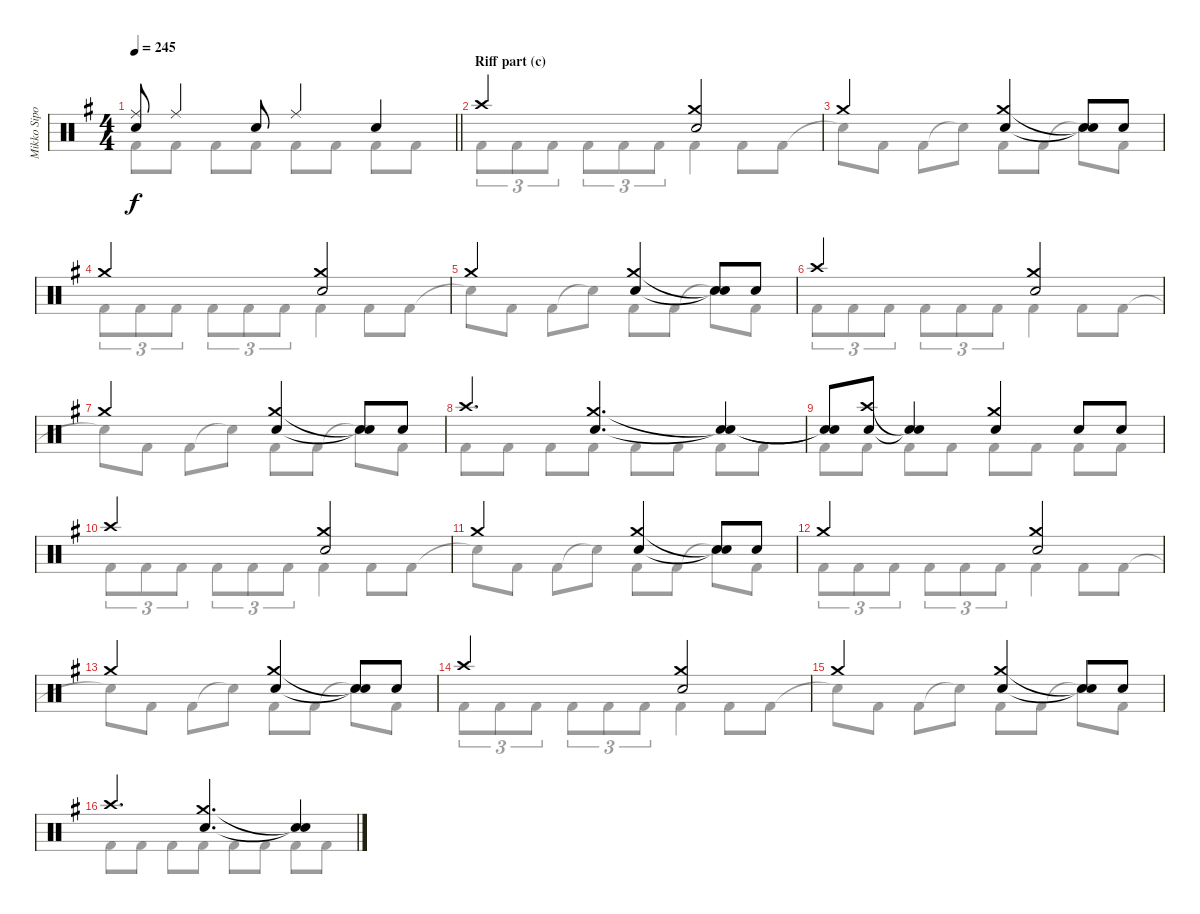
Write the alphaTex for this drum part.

\track ("Mikko Sipola (drums)" "Mikko Sipo") {instrument percussion}
\staff {score}
\articulation defaults
\voice
\ts (4 4)
\tempo 245
\clef neutral
\barLineRight lightlight
\ks eminor
("Ride (middle)" "Electric Snare (hit)").8{dy f} "Ride (middle)".4 "Electric Snare (hit)".8 "Ride (middle)".4 "Electric Snare (hit)".4 |
\section ("" "Riff part (c)")
"Crash high (hit)".2 ("Crash medium (hit)" "Snare (hit) 2").2 |
"Crash medium (hit)".2 ("Crash medium (hit)" "Snare (hit) 2").4 ("Snare (hit)"{t} "Snare (hit)"{t}).8 "Snare (hit) 2".8 |
"Crash medium (hit)".2 ("Crash medium (hit)" "Snare (hit) 2").2 |
"Crash medium (hit)".2 ("Crash medium (hit)" "Snare (hit) 2").4 ("Snare (hit)"{t} "Snare (hit)"{t}).8 "Snare (hit) 2".8 |
"Crash high (hit)".2 ("Crash medium (hit)" "Snare (hit) 2").2 |
"Crash medium (hit)".2 ("Crash medium (hit)" "Snare (hit) 2").4 ("Snare (hit)"{t} "Snare (hit)"{t}).8 "Snare (hit) 2".8 |
"Crash high (hit)".4{d} ("Crash medium (hit)" "Snare (hit) 2").4{d} ("Snare (hit)"{t} "Snare (hit)"{t}).4 |
("Snare (hit)"{t} "Snare (hit)"{t}).8 ("Crash high (hit)" "Snare (hit) 2").8 ("Snare (hit)"{t} "Snare (hit)"{t}).4 ("Crash medium (hit)" "Snare (hit) 2").4 "Snare (hit) 2".8 "Snare (hit) 2".8 |
"Crash high (hit)".2 ("Crash medium (hit)" "Snare (hit) 2").2 |
"Crash medium (hit)".2 ("Crash medium (hit)" "Snare (hit) 2").4 ("Snare (hit)"{t} "Snare (hit)"{t}).8 "Snare (hit) 2".8 |
"Crash medium (hit)".2 ("Crash medium (hit)" "Snare (hit) 2").2 |
"Crash medium (hit)".2 ("Crash medium (hit)" "Snare (hit) 2").4 ("Snare (hit)"{t} "Snare (hit)"{t}).8 "Snare (hit) 2".8 |
"Crash high (hit)".2 ("Crash medium (hit)" "Snare (hit) 2").2 |
"Crash medium (hit)".2 ("Crash medium (hit)" "Snare (hit) 2").4 ("Snare (hit)"{t} "Snare (hit)"{t}).8 "Snare (hit) 2".8 |
"Crash high (hit)".4{d} ("Crash medium (hit)" "Snare (hit) 2").4{d} ("Snare (hit)"{t} "Snare (hit)"{t}).4
\voice
\clef neutral
\ottava regular
\simile none
\barLineRight lightlight
\ks eminor "Kick (hit) 2".8{dy f} "Kick (hit) 2".8 "Kick (hit) 2".8 "Kick (hit) 2".8 "Kick (hit) 2".8 "Kick (hit) 2".8 "Kick (hit) 2".8 "Kick (hit) 2".8
|
"Kick (hit) 2".8{tu (3 2)} "Kick (hit) 2".8{tu (3 2)} "Kick (hit) 2".8{tu (3 2)} "Kick (hit) 2".8{tu (3 2)} "Kick (hit) 2".8{tu (3 2)} "Kick (hit) 2".8{tu (3 2)} "Kick (hit) 2".4 "Kick (hit) 2".8 "Kick (hit) 2".8 |
"Snare (hit)"{t}.8 "Kick (hit) 2".8 "Kick (hit) 2".8 "Snare (hit)"{t}.8 "Kick (hit) 2".8 "Kick (hit) 2".8 "Snare (hit)"{t}.8 "Kick (hit) 2".8 |
"Kick (hit) 2".8{tu (3 2)} "Kick (hit) 2".8{tu (3 2)} "Kick (hit) 2".8{tu (3 2)} "Kick (hit) 2".8{tu (3 2)} "Kick (hit) 2".8{tu (3 2)} "Kick (hit) 2".8{tu (3 2)} "Kick (hit) 2".4 "Kick (hit) 2".8 "Kick (hit) 2".8 |
"Snare (hit)"{t}.8 "Kick (hit) 2".8 "Kick (hit) 2".8 "Snare (hit)"{t}.8 "Kick (hit) 2".8 "Kick (hit) 2".8 "Snare (hit)"{t}.8 "Kick (hit) 2".8 |
"Kick (hit) 2".8{tu (3 2)} "Kick (hit) 2".8{tu (3 2)} "Kick (hit) 2".8{tu (3 2)} "Kick (hit) 2".8{tu (3 2)} "Kick (hit) 2".8{tu (3 2)} "Kick (hit) 2".8{tu (3 2)} "Kick (hit) 2".4 "Kick (hit) 2".8 "Kick (hit) 2".8 |
"Snare (hit)"{t}.8 "Kick (hit) 2".8 "Kick (hit) 2".8 "Snare (hit)"{t}.8 "Kick (hit) 2".8 "Kick (hit) 2".8 "Snare (hit)"{t}.8 "Kick (hit) 2".8 |
"Kick (hit) 2".8 "Kick (hit) 2".8 "Kick (hit) 2".8 "Kick (hit) 2".8 "Kick (hit) 2".8 "Kick (hit) 2".8 "Kick (hit) 2".8 "Kick (hit) 2".8 |
"Kick (hit) 2".8 "Kick (hit) 2".8 "Kick (hit) 2".8 "Kick (hit) 2".8 "Kick (hit) 2".8 "Kick (hit) 2".8 "Kick (hit) 2".8 "Kick (hit) 2".8 |
"Kick (hit) 2".8{tu (3 2)} "Kick (hit) 2".8{tu (3 2)} "Kick (hit) 2".8{tu (3 2)} "Kick (hit) 2".8{tu (3 2)} "Kick (hit) 2".8{tu (3 2)} "Kick (hit) 2".8{tu (3 2)} "Kick (hit) 2".4 "Kick (hit) 2".8 "Kick (hit) 2".8 |
"Snare (hit)"{t}.8 "Kick (hit) 2".8 "Kick (hit) 2".8 "Snare (hit)"{t}.8 "Kick (hit) 2".8 "Kick (hit) 2".8 "Snare (hit)"{t}.8 "Kick (hit) 2".8 |
"Kick (hit) 2".8{tu (3 2)} "Kick (hit) 2".8{tu (3 2)} "Kick (hit) 2".8{tu (3 2)} "Kick (hit) 2".8{tu (3 2)} "Kick (hit) 2".8{tu (3 2)} "Kick (hit) 2".8{tu (3 2)} "Kick (hit) 2".4 "Kick (hit) 2".8 "Kick (hit) 2".8 |
"Snare (hit)"{t}.8 "Kick (hit) 2".8 "Kick (hit) 2".8 "Snare (hit)"{t}.8 "Kick (hit) 2".8 "Kick (hit) 2".8 "Snare (hit)"{t}.8 "Kick (hit) 2".8 |
"Kick (hit) 2".8{tu (3 2)} "Kick (hit) 2".8{tu (3 2)} "Kick (hit) 2".8{tu (3 2)} "Kick (hit) 2".8{tu (3 2)} "Kick (hit) 2".8{tu (3 2)} "Kick (hit) 2".8{tu (3 2)} "Kick (hit) 2".4 "Kick (hit) 2".8 "Kick (hit) 2".8 |
"Snare (hit)"{t}.8 "Kick (hit) 2".8 "Kick (hit) 2".8 "Snare (hit)"{t}.8 "Kick (hit) 2".8 "Kick (hit) 2".8 "Snare (hit)"{t}.8 "Kick (hit) 2".8 |
"Kick (hit) 2".8 "Kick (hit) 2".8 "Kick (hit) 2".8 "Kick (hit) 2".8 "Kick (hit) 2".8 "Kick (hit) 2".8 "Kick (hit) 2".8 "Kick (hit) 2".8
